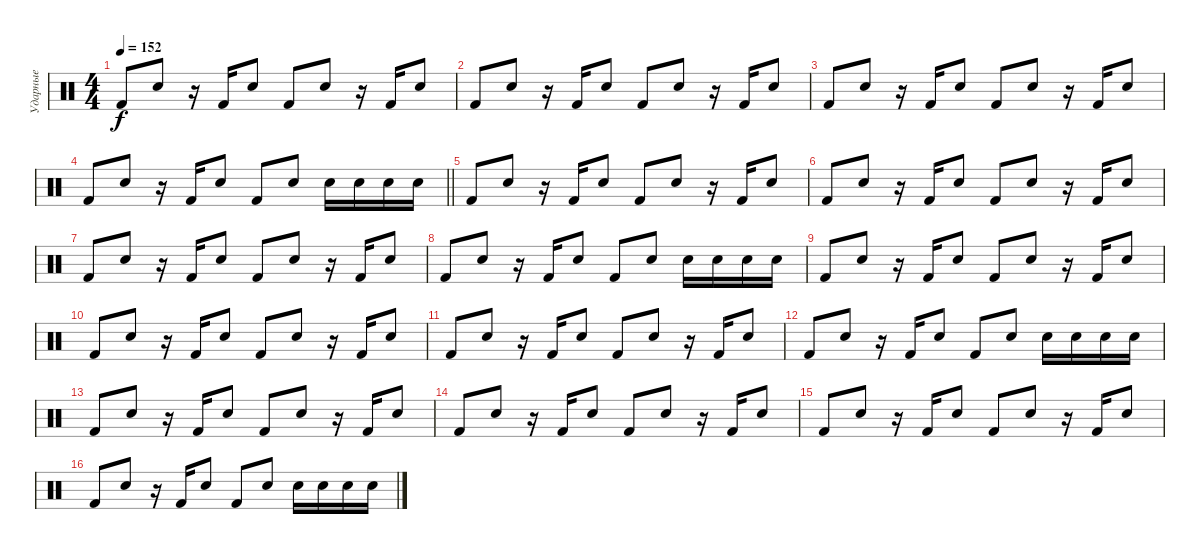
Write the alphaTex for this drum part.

\track ("Ударные" "Ударные") {instrument percussion}
\staff {score}
\articulation defaults
\ts (4 4)
\tempo 152
\clef neutral
\ks c "Kick (hit) 2".8{dy f} "Snare (hit) 2".8
r.16 "Kick (hit) 2".16 "Snare (hit) 2".8 "Kick (hit) 2".8 "Snare (hit) 2".8 r.16 "Kick (hit) 2".16 "Snare (hit) 2".8 |
"Kick (hit) 2".8 "Snare (hit) 2".8 r.16 "Kick (hit) 2".16 "Snare (hit) 2".8 "Kick (hit) 2".8 "Snare (hit) 2".8 r.16 "Kick (hit) 2".16 "Snare (hit) 2".8 |
"Kick (hit) 2".8 "Snare (hit) 2".8 r.16 "Kick (hit) 2".16 "Snare (hit) 2".8 "Kick (hit) 2".8 "Snare (hit) 2".8 r.16 "Kick (hit) 2".16 "Snare (hit) 2".8 |
\barLineRight lightlight "Kick (hit) 2".8 "Snare (hit) 2".8
r.16 "Kick (hit) 2".16 "Snare (hit) 2".8 "Kick (hit) 2".8 "Snare (hit) 2".8 "Snare (hit) 2".16 "Snare (hit) 2".16 "Snare (hit) 2".16 "Snare (hit) 2".16 |
"Kick (hit) 2".8 "Snare (hit) 2".8 r.16 "Kick (hit) 2".16 "Snare (hit) 2".8 "Kick (hit) 2".8 "Snare (hit) 2".8 r.16 "Kick (hit) 2".16 "Snare (hit) 2".8 |
"Kick (hit) 2".8 "Snare (hit) 2".8 r.16 "Kick (hit) 2".16 "Snare (hit) 2".8 "Kick (hit) 2".8 "Snare (hit) 2".8 r.16 "Kick (hit) 2".16 "Snare (hit) 2".8 |
"Kick (hit) 2".8 "Snare (hit) 2".8 r.16 "Kick (hit) 2".16 "Snare (hit) 2".8 "Kick (hit) 2".8 "Snare (hit) 2".8 r.16 "Kick (hit) 2".16 "Snare (hit) 2".8 |
"Kick (hit) 2".8 "Snare (hit) 2".8 r.16 "Kick (hit) 2".16 "Snare (hit) 2".8 "Kick (hit) 2".8 "Snare (hit) 2".8 "Snare (hit) 2".16 "Snare (hit) 2".16 "Snare (hit) 2".16 "Snare (hit) 2".16 |
"Kick (hit) 2".8 "Snare (hit) 2".8 r.16 "Kick (hit) 2".16 "Snare (hit) 2".8 "Kick (hit) 2".8 "Snare (hit) 2".8 r.16 "Kick (hit) 2".16 "Snare (hit) 2".8 |
"Kick (hit) 2".8 "Snare (hit) 2".8 r.16 "Kick (hit) 2".16 "Snare (hit) 2".8 "Kick (hit) 2".8 "Snare (hit) 2".8 r.16 "Kick (hit) 2".16 "Snare (hit) 2".8 |
"Kick (hit) 2".8 "Snare (hit) 2".8 r.16 "Kick (hit) 2".16 "Snare (hit) 2".8 "Kick (hit) 2".8 "Snare (hit) 2".8 r.16 "Kick (hit) 2".16 "Snare (hit) 2".8 |
"Kick (hit) 2".8 "Snare (hit) 2".8 r.16 "Kick (hit) 2".16 "Snare (hit) 2".8 "Kick (hit) 2".8 "Snare (hit) 2".8 "Snare (hit) 2".16 "Snare (hit) 2".16 "Snare (hit) 2".16 "Snare (hit) 2".16 |
"Kick (hit) 2".8 "Snare (hit) 2".8 r.16 "Kick (hit) 2".16 "Snare (hit) 2".8 "Kick (hit) 2".8 "Snare (hit) 2".8 r.16 "Kick (hit) 2".16 "Snare (hit) 2".8 |
"Kick (hit) 2".8 "Snare (hit) 2".8 r.16 "Kick (hit) 2".16 "Snare (hit) 2".8 "Kick (hit) 2".8 "Snare (hit) 2".8 r.16 "Kick (hit) 2".16 "Snare (hit) 2".8 |
"Kick (hit) 2".8 "Snare (hit) 2".8 r.16 "Kick (hit) 2".16 "Snare (hit) 2".8 "Kick (hit) 2".8 "Snare (hit) 2".8 r.16 "Kick (hit) 2".16 "Snare (hit) 2".8 |
"Kick (hit) 2".8 "Snare (hit) 2".8 r.16 "Kick (hit) 2".16 "Snare (hit) 2".8 "Kick (hit) 2".8 "Snare (hit) 2".8 "Snare (hit) 2".16 "Snare (hit) 2".16 "Snare (hit) 2".16 "Snare (hit) 2".16
